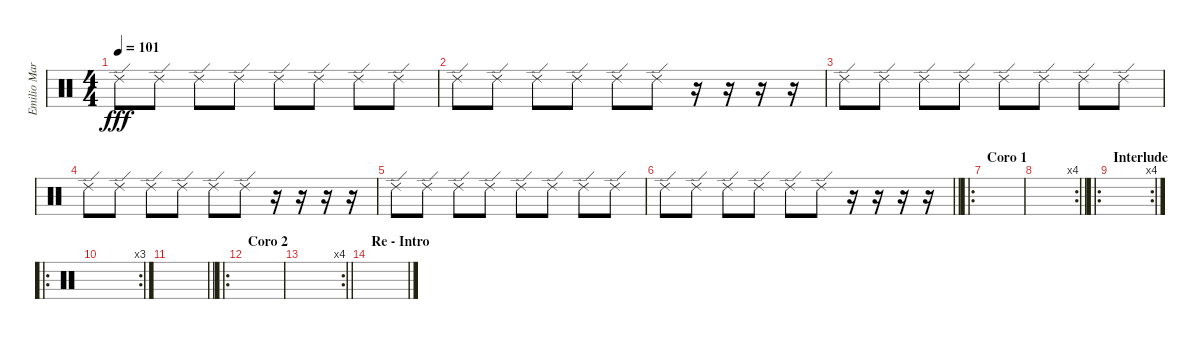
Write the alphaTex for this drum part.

\track ("Emilio Marquez 2" "Emilio Mar") {instrument percussion}
\staff {score}
\articulation defaults
\ts (4 4)
\tempo 101
\clef neutral
\ks c "Ride (edge) 2".8{dy fff} "Ride (edge) 2".8 "Ride (edge) 2".8 "Ride (edge) 2".8 "Ride (edge) 2".8 "Ride (edge) 2".8 "Ride (edge) 2".8 "Ride (edge) 2".8
|
"Ride (edge) 2".8 "Ride (edge) 2".8 "Ride (edge) 2".8 "Ride (edge) 2".8 "Ride (edge) 2".8 "Ride (edge) 2".8 r.16 r.16 r.16 r.16 |
"Ride (edge) 2".8 "Ride (edge) 2".8 "Ride (edge) 2".8 "Ride (edge) 2".8 "Ride (edge) 2".8 "Ride (edge) 2".8 "Ride (edge) 2".8 "Ride (edge) 2".8 |
"Ride (edge) 2".8 "Ride (edge) 2".8 "Ride (edge) 2".8 "Ride (edge) 2".8 "Ride (edge) 2".8 "Ride (edge) 2".8 r.16 r.16 r.16 r.16 |
"Ride (edge) 2".8 "Ride (edge) 2".8 "Ride (edge) 2".8 "Ride (edge) 2".8 "Ride (edge) 2".8 "Ride (edge) 2".8 "Ride (edge) 2".8 "Ride (edge) 2".8 |
\barLineRight lightlight "Ride (edge) 2".8 "Ride (edge) 2".8 "Ride (edge) 2".8 "Ride (edge) 2".8 "Ride (edge) 2".8 "Ride (edge) 2".8
r.16 r.16 r.16 r.16 |
\ro
\section ("" "Coro 1")
|
\rc 4
\barLineRight lightlight
|
\ro
\rc 4
\section ("" "Interlude")
|
\ro
\rc 3
|
\barLineRight lightlight
|
\ro
\section ("" "Coro 2")
|
\rc 4
\barLineRight lightlight
|
\section ("" "Re - Intro")
